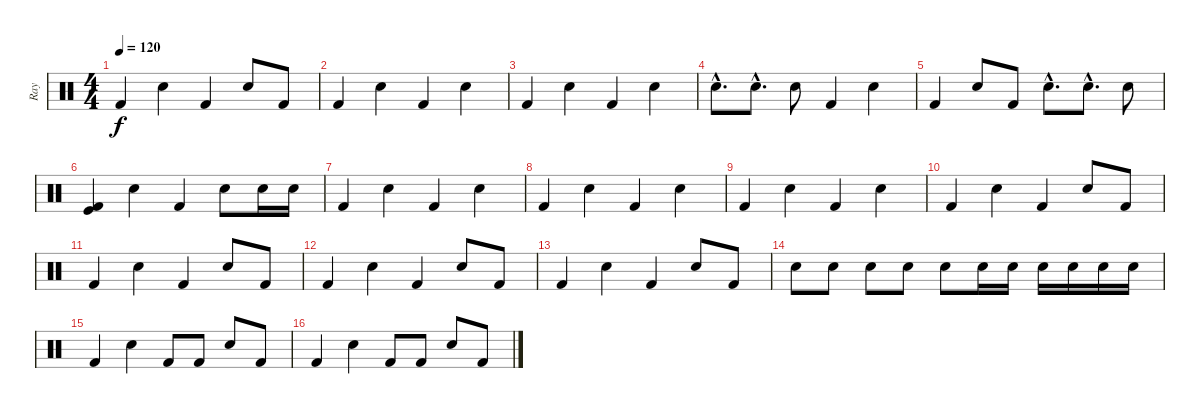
\track ("Ray" "Ray") {instrument percussion}
\staff {score}
\articulation defaults
\ts (4 4)
\tempo 120
\clef neutral
\ks c "Kick (hit) 2".4{dy f} "Snare (hit) 2".4 "Kick (hit) 2".4 "Snare (hit) 2".8 "Kick (hit) 2".8
|
"Kick (hit) 2".4 "Snare (hit) 2".4 "Kick (hit) 2".4 "Snare (hit) 2".4 |
"Kick (hit) 2".4 "Snare (hit) 2".4 "Kick (hit) 2".4 "Snare (hit) 2".4 |
"Snare (hit) 2"{hac}.8{d} "Snare (hit) 2"{hac}.8{d} "Snare (hit) 2".8 "Kick (hit) 2".4 "Snare (hit) 2".4 |
"Kick (hit) 2".4 "Snare (hit) 2".8 "Kick (hit) 2".8 "Snare (hit) 2"{hac}.8{d} "Snare (hit) 2"{hac}.8{d} "Snare (hit) 2".8 |
("Kick (hit) 2" "Kick (hit)").4 "Snare (hit) 2".4 "Kick (hit) 2".4 "Snare (hit) 2".8 "Snare (hit) 2".16 "Snare (hit) 2".16 |
"Kick (hit) 2".4 "Snare (hit) 2".4 "Kick (hit) 2".4 "Snare (hit) 2".4 |
"Kick (hit) 2".4 "Snare (hit) 2".4 "Kick (hit) 2".4 "Snare (hit) 2".4 |
"Kick (hit) 2".4 "Snare (hit) 2".4 "Kick (hit) 2".4 "Snare (hit) 2".4 |
"Kick (hit) 2".4 "Snare (hit) 2".4 "Kick (hit) 2".4 "Snare (hit) 2".8 "Kick (hit) 2".8 |
"Kick (hit) 2".4 "Snare (hit) 2".4 "Kick (hit) 2".4 "Snare (hit) 2".8 "Kick (hit) 2".8 |
"Kick (hit) 2".4 "Snare (hit) 2".4 "Kick (hit) 2".4 "Snare (hit) 2".8 "Kick (hit) 2".8 |
"Kick (hit) 2".4 "Snare (hit) 2".4 "Kick (hit) 2".4 "Snare (hit) 2".8 "Kick (hit) 2".8 |
"Snare (hit) 2".8 "Snare (hit) 2".8 "Snare (hit) 2".8 "Snare (hit) 2".8 "Snare (hit) 2".8 "Snare (hit) 2".16 "Snare (hit) 2".16 "Snare (hit) 2".16 "Snare (hit) 2".16 "Snare (hit) 2".16 "Snare (hit) 2".16 |
"Kick (hit) 2".4 "Snare (hit) 2".4 "Kick (hit) 2".8 "Kick (hit) 2".8 "Snare (hit) 2".8 "Kick (hit) 2".8 |
"Kick (hit) 2".4 "Snare (hit) 2".4 "Kick (hit) 2".8 "Kick (hit) 2".8 "Snare (hit) 2".8 "Kick (hit) 2".8
